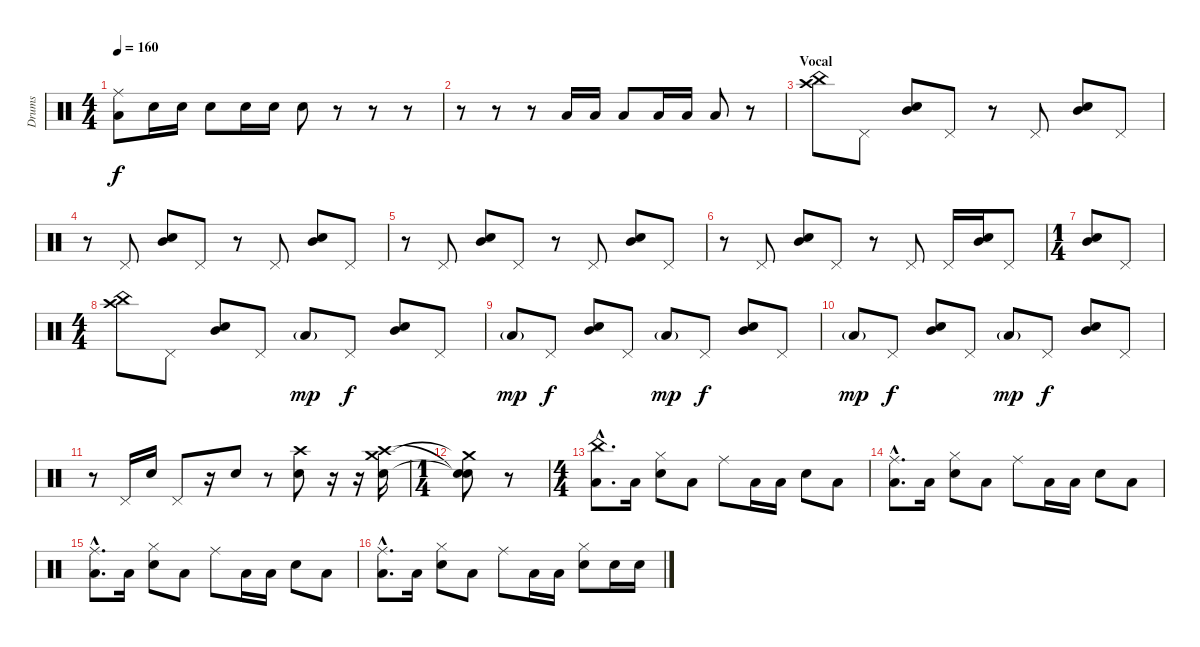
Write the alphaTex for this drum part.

\track ("Drums" "Drums") {instrument percussion}
\staff {score}
\articulation defaults
\ts (4 4)
\tempo 160
\clef neutral
\ks c
("Ride (middle)" "Low Floor Tom (hit)").8{dy f} "Electric Snare (hit)".16 "Electric Snare (hit)".16 "Electric Snare (hit)".8 "Electric Snare (hit)".16 "Electric Snare (hit)".16 "Electric Snare (hit)".8 r.8 r.8 r.8 |
r.8 r.8 r.8 "Low Floor Tom (hit)".16 "Low Floor Tom (hit)".16 "Low Floor Tom (hit)".8 "Low Floor Tom (hit)".16 "Low Floor Tom (hit)".16 "Low Floor Tom (hit)".8 r.8 |
\section ("" "Vocal")
\ks aminor
("Crash high (hit)" "China (hit)").8 "Pedal Hi-Hat (hit)".8 ("Mid Tom (hit)" "Electric Snare (hit)").8 "Pedal Hi-Hat (hit)".8 r.8 "Pedal Hi-Hat (hit)".8 ("Mid Tom (hit)" "Electric Snare (hit)").8 "Pedal Hi-Hat (hit)".8 |
r.8 "Pedal Hi-Hat (hit)".8 ("Mid Tom (hit)" "Electric Snare (hit)").8 "Pedal Hi-Hat (hit)".8 r.8 "Pedal Hi-Hat (hit)".8 ("Mid Tom (hit)" "Electric Snare (hit)").8 "Pedal Hi-Hat (hit)".8 |
r.8 "Pedal Hi-Hat (hit)".8 ("Mid Tom (hit)" "Electric Snare (hit)").8 "Pedal Hi-Hat (hit)".8 r.8 "Pedal Hi-Hat (hit)".8 ("Mid Tom (hit)" "Electric Snare (hit)").8 "Pedal Hi-Hat (hit)".8 |
r.8 "Pedal Hi-Hat (hit)".8 ("Mid Tom (hit)" "Electric Snare (hit)").8 "Pedal Hi-Hat (hit)".8 r.8 "Pedal Hi-Hat (hit)".8 "Pedal Hi-Hat (hit)".16 ("Mid Tom (hit)" "Electric Snare (hit)").16 "Pedal Hi-Hat (hit)".8 |
\ts (1 4)
("Mid Tom (hit)" "Electric Snare (hit)").8 "Pedal Hi-Hat (hit)".8 |
\ts (4 4)
("Crash high (hit)" "China (hit)").8 "Pedal Hi-Hat (hit)".8 ("Mid Tom (hit)" "Electric Snare (hit)").8 "Pedal Hi-Hat (hit)".8 "Low Floor Tom (hit)"{g}.8{dy mp} "Pedal Hi-Hat (hit)".8{dy f} ("Mid Tom (hit)" "Electric Snare (hit)").8 "Pedal Hi-Hat (hit)".8 |
"Low Floor Tom (hit)"{g}.8{dy mp} "Pedal Hi-Hat (hit)".8{dy f} ("Mid Tom (hit)" "Electric Snare (hit)").8 "Pedal Hi-Hat (hit)".8 "Low Floor Tom (hit)"{g}.8{dy mp} "Pedal Hi-Hat (hit)".8{dy f} ("Mid Tom (hit)" "Electric Snare (hit)").8 "Pedal Hi-Hat (hit)".8 |
"Low Floor Tom (hit)"{g}.8{dy mp} "Pedal Hi-Hat (hit)".8{dy f} ("Mid Tom (hit)" "Electric Snare (hit)").8 "Pedal Hi-Hat (hit)".8 "Low Floor Tom (hit)"{g}.8{dy mp} "Pedal Hi-Hat (hit)".8{dy f} ("Mid Tom (hit)" "Electric Snare (hit)").8 "Pedal Hi-Hat (hit)".8 |
r.8 "Pedal Hi-Hat (hit)".16 "Electric Snare (hit)".16 "Pedal Hi-Hat (hit)".8 r.16 "Electric Snare (hit)".8 r.8 ("Crash high (hit)" "Electric Snare (hit)").8 r.16 r.16 ("Crash high (hit)" "Crash medium (hit)" "Electric Snare (hit)").16 |
\ts (1 4)
("Snare (hit)"{t} "Crash medium (hit)"{t} "Electric Snare (hit)"{t}).8 r.8 |
\ts (4 4)
("China (hit)"{hac} "Low Floor Tom (hit)"{hac}).8{d} "Low Floor Tom (hit)".16 ("Hi-Hat (closed)" "Electric Snare (hit)").8 "Low Floor Tom (hit)".8 "Ride (middle)".8 "Low Floor Tom (hit)".16 "Low Floor Tom (hit)".16 "Electric Snare (hit)".8 "Low Floor Tom (hit)".8 |
("Ride (middle)"{hac} "Low Floor Tom (hit)"{hac}).8{d} "Low Floor Tom (hit)".16 ("Hi-Hat (closed)" "Electric Snare (hit)").8 "Low Floor Tom (hit)".8 "Ride (middle)".8 "Low Floor Tom (hit)".16 "Low Floor Tom (hit)".16 "Electric Snare (hit)".8 "Low Floor Tom (hit)".8 |
("Ride (middle)"{hac} "Low Floor Tom (hit)"{hac}).8{d} "Low Floor Tom (hit)".16 ("Hi-Hat (closed)" "Electric Snare (hit)").8 "Low Floor Tom (hit)".8 "Ride (middle)".8 "Low Floor Tom (hit)".16 "Low Floor Tom (hit)".16 "Electric Snare (hit)".8 "Low Floor Tom (hit)".8 |
("Ride (middle)"{hac} "Low Floor Tom (hit)"{hac}).8{d} "Low Floor Tom (hit)".16 ("Hi-Hat (closed)" "Electric Snare (hit)").8 "Low Floor Tom (hit)".8 "Ride (middle)".8 "Low Floor Tom (hit)".16 "Low Floor Tom (hit)".16 ("Hi-Hat (closed)" "Electric Snare (hit)").8 "Electric Snare (hit)".16 "Electric Snare (hit)".16
